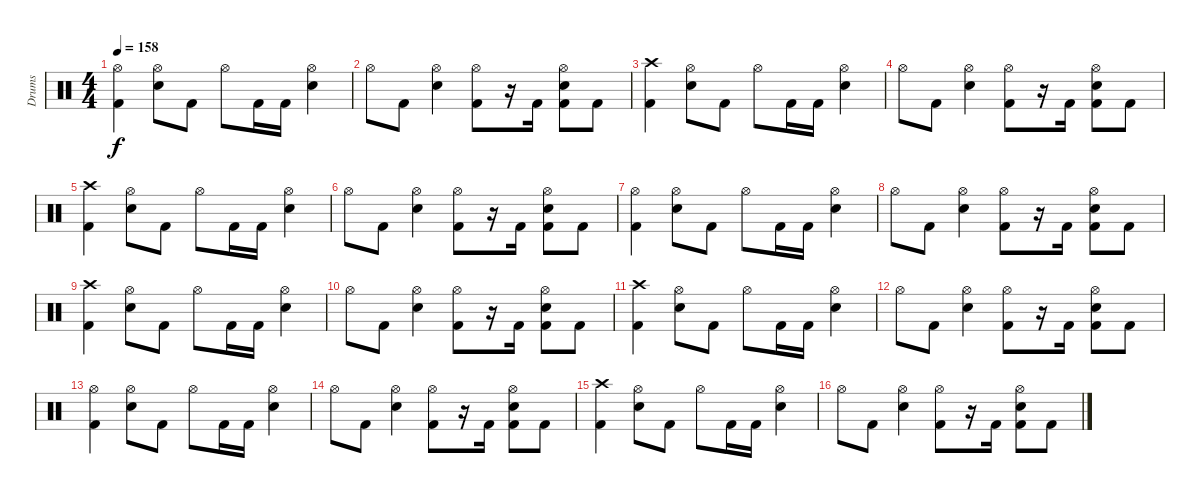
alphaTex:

\track ("Drums" "Drums") {instrument percussion}
\staff {score}
\articulation defaults
\ts (4 4)
\tempo 158
\clef neutral
\ks c
("Hi-Hat (open)" "Kick (hit) 2").4{dy f} ("Hi-Hat (open)" "Snare (hit) 2").8 "Kick (hit) 2".8 "Hi-Hat (open)".8 "Kick (hit) 2".16 "Kick (hit) 2".16 ("Hi-Hat (open)" "Snare (hit) 2").4 |
"Hi-Hat (open)".8 "Kick (hit) 2".8 ("Hi-Hat (open)" "Snare (hit) 2").4 ("Hi-Hat (open)" "Kick (hit) 2").8 r.16 "Kick (hit) 2".16 ("Hi-Hat (open)" "Snare (hit) 2" "Kick (hit) 2").8 "Kick (hit) 2".8 |
("Crash high (hit)" "Kick (hit) 2").4 ("Hi-Hat (open)" "Snare (hit) 2").8 "Kick (hit) 2".8 "Hi-Hat (open)".8 "Kick (hit) 2".16 "Kick (hit) 2".16 ("Hi-Hat (open)" "Snare (hit) 2").4 |
"Hi-Hat (open)".8 "Kick (hit) 2".8 ("Hi-Hat (open)" "Snare (hit) 2").4 ("Hi-Hat (open)" "Kick (hit) 2").8 r.16 "Kick (hit) 2".16 ("Hi-Hat (open)" "Snare (hit) 2" "Kick (hit) 2").8 "Kick (hit) 2".8 |
("Crash high (hit)" "Kick (hit) 2").4 ("Hi-Hat (open)" "Snare (hit) 2").8 "Kick (hit) 2".8 "Hi-Hat (open)".8 "Kick (hit) 2".16 "Kick (hit) 2".16 ("Hi-Hat (open)" "Snare (hit) 2").4 |
"Hi-Hat (open)".8 "Kick (hit) 2".8 ("Hi-Hat (open)" "Snare (hit) 2").4 ("Hi-Hat (open)" "Kick (hit) 2").8 r.16 "Kick (hit) 2".16 ("Hi-Hat (open)" "Snare (hit) 2" "Kick (hit) 2").8 "Kick (hit) 2".8 |
("Hi-Hat (open)" "Kick (hit) 2").4 ("Hi-Hat (open)" "Snare (hit) 2").8 "Kick (hit) 2".8 "Hi-Hat (open)".8 "Kick (hit) 2".16 "Kick (hit) 2".16 ("Hi-Hat (open)" "Snare (hit) 2").4 |
"Hi-Hat (open)".8 "Kick (hit) 2".8 ("Hi-Hat (open)" "Snare (hit) 2").4 ("Hi-Hat (open)" "Kick (hit) 2").8 r.16 "Kick (hit) 2".16 ("Hi-Hat (open)" "Snare (hit) 2" "Kick (hit) 2").8 "Kick (hit) 2".8 |
("Crash high (hit)" "Kick (hit) 2").4 ("Hi-Hat (open)" "Snare (hit) 2").8 "Kick (hit) 2".8 "Hi-Hat (open)".8 "Kick (hit) 2".16 "Kick (hit) 2".16 ("Hi-Hat (open)" "Snare (hit) 2").4 |
"Hi-Hat (open)".8 "Kick (hit) 2".8 ("Hi-Hat (open)" "Snare (hit) 2").4 ("Hi-Hat (open)" "Kick (hit) 2").8 r.16 "Kick (hit) 2".16 ("Hi-Hat (open)" "Snare (hit) 2" "Kick (hit) 2").8 "Kick (hit) 2".8 |
("Crash high (hit)" "Kick (hit) 2").4 ("Hi-Hat (open)" "Snare (hit) 2").8 "Kick (hit) 2".8 "Hi-Hat (open)".8 "Kick (hit) 2".16 "Kick (hit) 2".16 ("Hi-Hat (open)" "Snare (hit) 2").4 |
"Hi-Hat (open)".8 "Kick (hit) 2".8 ("Hi-Hat (open)" "Snare (hit) 2").4 ("Hi-Hat (open)" "Kick (hit) 2").8 r.16 "Kick (hit) 2".16 ("Hi-Hat (open)" "Snare (hit) 2" "Kick (hit) 2").8 "Kick (hit) 2".8 |
("Hi-Hat (open)" "Kick (hit) 2").4 ("Hi-Hat (open)" "Snare (hit) 2").8 "Kick (hit) 2".8 "Hi-Hat (open)".8 "Kick (hit) 2".16 "Kick (hit) 2".16 ("Hi-Hat (open)" "Snare (hit) 2").4 |
"Hi-Hat (open)".8 "Kick (hit) 2".8 ("Hi-Hat (open)" "Snare (hit) 2").4 ("Hi-Hat (open)" "Kick (hit) 2").8 r.16 "Kick (hit) 2".16 ("Hi-Hat (open)" "Snare (hit) 2" "Kick (hit) 2").8 "Kick (hit) 2".8 |
("Crash high (hit)" "Kick (hit) 2").4 ("Hi-Hat (open)" "Snare (hit) 2").8 "Kick (hit) 2".8 "Hi-Hat (open)".8 "Kick (hit) 2".16 "Kick (hit) 2".16 ("Hi-Hat (open)" "Snare (hit) 2").4 |
"Hi-Hat (open)".8 "Kick (hit) 2".8 ("Hi-Hat (open)" "Snare (hit) 2").4 ("Hi-Hat (open)" "Kick (hit) 2").8 r.16 "Kick (hit) 2".16 ("Hi-Hat (open)" "Snare (hit) 2" "Kick (hit) 2").8 "Kick (hit) 2".8
